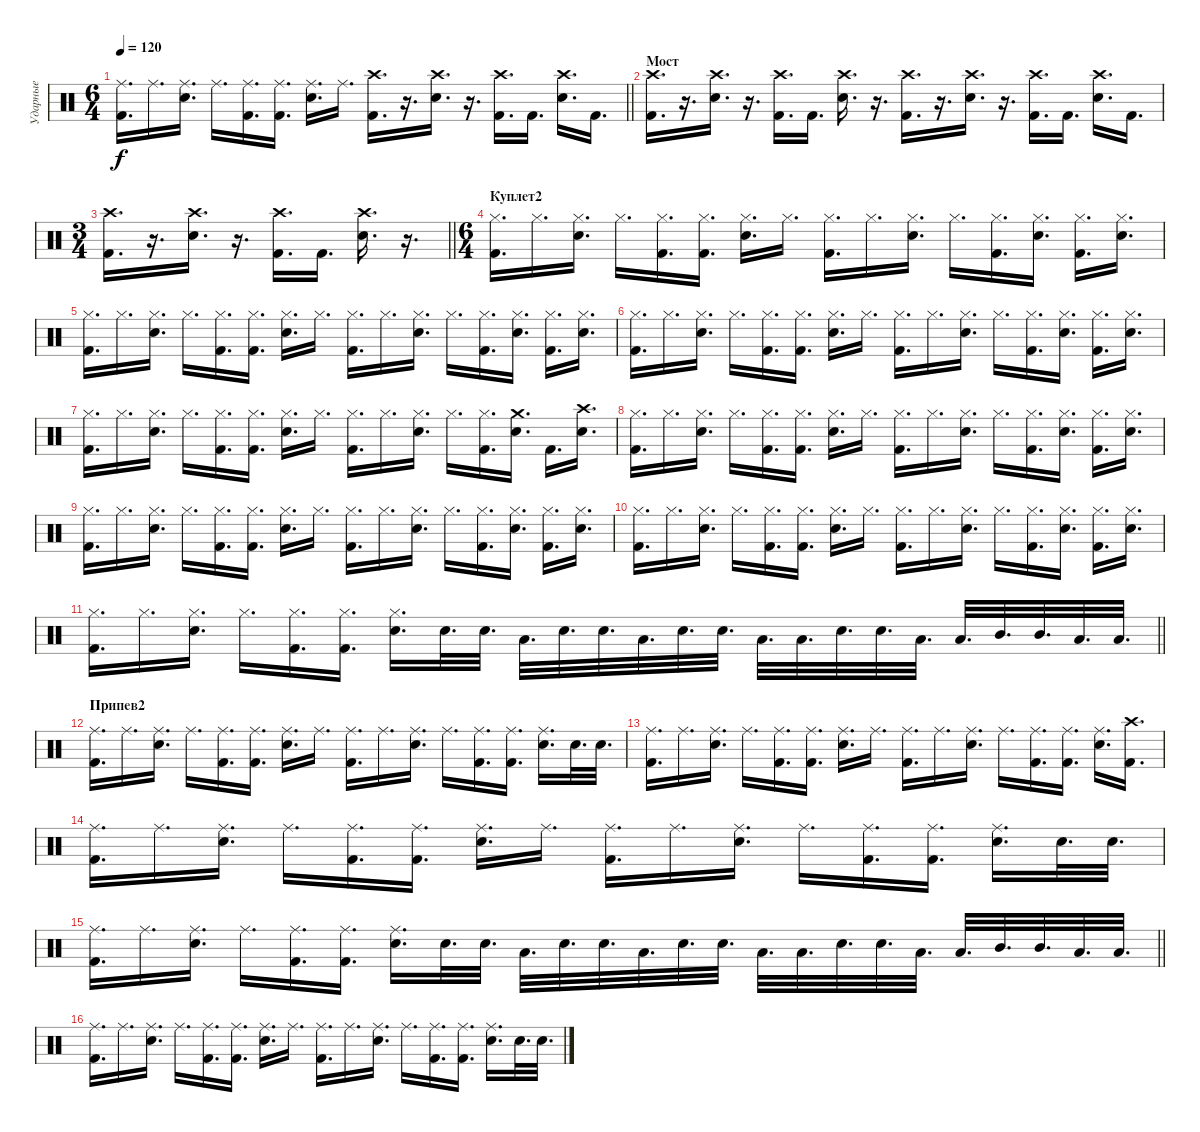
\track ("Ударные" "Ударные") {instrument percussion}
\staff {score}
\articulation defaults
\ts (6 4)
\tempo 120
\clef neutral
\barLineRight lightlight
\ks c
("Ride (middle)" "Kick (hit) 2").16{d dy f} "Ride (middle)".16{d} ("Ride (middle)" "Electric Snare (hit)").16{d} "Ride (middle)".16{d} ("Ride (middle)" "Kick (hit) 2").16{d} ("Ride (middle)" "Kick (hit) 2").16{d} ("Ride (middle)" "Electric Snare (hit)").16{d} "Ride (middle)".16{d} ("Crash high (hit)" "Kick (hit) 2").16{d} r.16{d} ("Crash high (hit)" "Electric Snare (hit)").16{d} r.16{d} ("Crash high (hit)" "Kick (hit) 2").16{d} "Kick (hit) 2".16{d} ("Crash high (hit)" "Electric Snare (hit)").16{d} "Kick (hit) 2".16{d} |
\section ("" "Мост")
("Crash high (hit)" "Kick (hit) 2").16{d} r.16{d} ("Crash high (hit)" "Electric Snare (hit)").16{d} r.16{d} ("Crash high (hit)" "Kick (hit) 2").16{d} "Kick (hit) 2".16{d} ("Crash high (hit)" "Electric Snare (hit)").16{d} r.16{d} ("Crash high (hit)" "Kick (hit) 2").16{d} r.16{d} ("Crash high (hit)" "Electric Snare (hit)").16{d} r.16{d} ("Crash high (hit)" "Kick (hit) 2").16{d} "Kick (hit) 2".16{d} ("Crash high (hit)" "Electric Snare (hit)").16{d} "Kick (hit) 2".16{d} |
\ts (3 4)
\barLineRight lightlight
("Crash high (hit)" "Kick (hit) 2").16{d} r.16{d} ("Crash high (hit)" "Electric Snare (hit)").16{d} r.16{d} ("Crash high (hit)" "Kick (hit) 2").16{d} "Kick (hit) 2".16{d} ("Crash high (hit)" "Electric Snare (hit)").16{d} r.16{d} |
\ts (6 4)
\section ("" "Куплет2")
("Hi-Hat (closed)" "Kick (hit) 2").16{d} "Hi-Hat (closed)".16{d} ("Hi-Hat (closed)" "Electric Snare (hit)").16{d} "Hi-Hat (closed)".16{d} ("Hi-Hat (closed)" "Kick (hit) 2").16{d} ("Hi-Hat (closed)" "Kick (hit) 2").16{d} ("Hi-Hat (closed)" "Electric Snare (hit)").16{d} "Hi-Hat (closed)".16{d} ("Hi-Hat (closed)" "Kick (hit) 2").16{d} "Hi-Hat (closed)".16{d} ("Hi-Hat (closed)" "Electric Snare (hit)").16{d} "Hi-Hat (closed)".16{d} ("Hi-Hat (closed)" "Kick (hit) 2").16{d} ("Hi-Hat (closed)" "Electric Snare (hit)").16{d} ("Hi-Hat (closed)" "Kick (hit) 2").16{d} ("Hi-Hat (closed)" "Electric Snare (hit)").16{d} |
("Hi-Hat (closed)" "Kick (hit) 2").16{d} "Hi-Hat (closed)".16{d} ("Hi-Hat (closed)" "Electric Snare (hit)").16{d} "Hi-Hat (closed)".16{d} ("Hi-Hat (closed)" "Kick (hit) 2").16{d} ("Hi-Hat (closed)" "Kick (hit) 2").16{d} ("Hi-Hat (closed)" "Electric Snare (hit)").16{d} "Hi-Hat (closed)".16{d} ("Hi-Hat (closed)" "Kick (hit) 2").16{d} "Hi-Hat (closed)".16{d} ("Hi-Hat (closed)" "Electric Snare (hit)").16{d} "Hi-Hat (closed)".16{d} ("Hi-Hat (closed)" "Kick (hit) 2").16{d} ("Hi-Hat (closed)" "Electric Snare (hit)").16{d} ("Hi-Hat (closed)" "Kick (hit) 2").16{d} ("Hi-Hat (closed)" "Electric Snare (hit)").16{d} |
("Hi-Hat (closed)" "Kick (hit) 2").16{d} "Hi-Hat (closed)".16{d} ("Hi-Hat (closed)" "Electric Snare (hit)").16{d} "Hi-Hat (closed)".16{d} ("Hi-Hat (closed)" "Kick (hit) 2").16{d} ("Hi-Hat (closed)" "Kick (hit) 2").16{d} ("Hi-Hat (closed)" "Electric Snare (hit)").16{d} "Hi-Hat (closed)".16{d} ("Hi-Hat (closed)" "Kick (hit) 2").16{d} "Hi-Hat (closed)".16{d} ("Hi-Hat (closed)" "Electric Snare (hit)").16{d} "Hi-Hat (closed)".16{d} ("Hi-Hat (closed)" "Kick (hit) 2").16{d} ("Hi-Hat (closed)" "Electric Snare (hit)").16{d} ("Hi-Hat (closed)" "Kick (hit) 2").16{d} ("Hi-Hat (closed)" "Electric Snare (hit)").16{d} |
("Hi-Hat (closed)" "Kick (hit) 2").16{d} "Hi-Hat (closed)".16{d} ("Hi-Hat (closed)" "Electric Snare (hit)").16{d} "Hi-Hat (closed)".16{d} ("Hi-Hat (closed)" "Kick (hit) 2").16{d} ("Hi-Hat (closed)" "Kick (hit) 2").16{d} ("Hi-Hat (closed)" "Electric Snare (hit)").16{d} "Hi-Hat (closed)".16{d} ("Hi-Hat (closed)" "Kick (hit) 2").16{d} "Hi-Hat (closed)".16{d} ("Hi-Hat (closed)" "Electric Snare (hit)").16{d} "Hi-Hat (closed)".16{d} ("Hi-Hat (closed)" "Kick (hit) 2").16{d} ("Crash medium (hit)" "Electric Snare (hit)").16{d} "Kick (hit) 2".16{d} ("Crash high (hit)" "Electric Snare (hit)").16{d} |
("Hi-Hat (closed)" "Kick (hit) 2").16{d} "Hi-Hat (closed)".16{d} ("Hi-Hat (closed)" "Electric Snare (hit)").16{d} "Hi-Hat (closed)".16{d} ("Hi-Hat (closed)" "Kick (hit) 2").16{d} ("Hi-Hat (closed)" "Kick (hit) 2").16{d} ("Hi-Hat (closed)" "Electric Snare (hit)").16{d} "Hi-Hat (closed)".16{d} ("Hi-Hat (closed)" "Kick (hit) 2").16{d} "Hi-Hat (closed)".16{d} ("Hi-Hat (closed)" "Electric Snare (hit)").16{d} "Hi-Hat (closed)".16{d} ("Hi-Hat (closed)" "Kick (hit) 2").16{d} ("Hi-Hat (closed)" "Electric Snare (hit)").16{d} ("Hi-Hat (closed)" "Kick (hit) 2").16{d} ("Hi-Hat (closed)" "Electric Snare (hit)").16{d} |
("Hi-Hat (closed)" "Kick (hit) 2").16{d} "Hi-Hat (closed)".16{d} ("Hi-Hat (closed)" "Electric Snare (hit)").16{d} "Hi-Hat (closed)".16{d} ("Hi-Hat (closed)" "Kick (hit) 2").16{d} ("Hi-Hat (closed)" "Kick (hit) 2").16{d} ("Hi-Hat (closed)" "Electric Snare (hit)").16{d} "Hi-Hat (closed)".16{d} ("Hi-Hat (closed)" "Kick (hit) 2").16{d} "Hi-Hat (closed)".16{d} ("Hi-Hat (closed)" "Electric Snare (hit)").16{d} "Hi-Hat (closed)".16{d} ("Hi-Hat (closed)" "Kick (hit) 2").16{d} ("Hi-Hat (closed)" "Electric Snare (hit)").16{d} ("Hi-Hat (closed)" "Kick (hit) 2").16{d} ("Hi-Hat (closed)" "Electric Snare (hit)").16{d} |
("Hi-Hat (closed)" "Kick (hit) 2").16{d} "Hi-Hat (closed)".16{d} ("Hi-Hat (closed)" "Electric Snare (hit)").16{d} "Hi-Hat (closed)".16{d} ("Hi-Hat (closed)" "Kick (hit) 2").16{d} ("Hi-Hat (closed)" "Kick (hit) 2").16{d} ("Hi-Hat (closed)" "Electric Snare (hit)").16{d} "Hi-Hat (closed)".16{d} ("Hi-Hat (closed)" "Kick (hit) 2").16{d} "Hi-Hat (closed)".16{d} ("Hi-Hat (closed)" "Electric Snare (hit)").16{d} "Hi-Hat (closed)".16{d} ("Hi-Hat (closed)" "Kick (hit) 2").16{d} ("Hi-Hat (closed)" "Electric Snare (hit)").16{d} ("Hi-Hat (closed)" "Kick (hit) 2").16{d} ("Hi-Hat (closed)" "Electric Snare (hit)").16{d} |
\barLineRight lightlight
("Hi-Hat (closed)" "Kick (hit) 2").16{d} "Hi-Hat (closed)".16{d} ("Hi-Hat (closed)" "Electric Snare (hit)").16{d} "Hi-Hat (closed)".16{d} ("Hi-Hat (closed)" "Kick (hit) 2").16{d} ("Hi-Hat (closed)" "Kick (hit) 2").16{d} ("Hi-Hat (closed)" "Electric Snare (hit)").16{d} "Electric Snare (hit)".32{d} "Electric Snare (hit)".32{d} "Low Tom (hit)".32{d} "Electric Snare (hit)".32{d} "Electric Snare (hit)".32{d} "Low Tom (hit)".32{d} "Electric Snare (hit)".32{d} "Electric Snare (hit)".32{d} "Low Tom (hit)".32{d} "Low Tom (hit)".32{d} "Electric Snare (hit)".32{d} "Electric Snare (hit)".32{d} "Low Tom (hit)".32{d} "Low Tom (hit)".32{d} "Mid Tom (hit)".32{d} "Mid Tom (hit)".32{d} "Low Floor Tom (hit)".32{d} "Low Floor Tom (hit)".32{d} |
\section ("" "Припев2")
("Ride (middle)" "Kick (hit) 2").16{d} "Ride (middle)".16{d} ("Ride (middle)" "Electric Snare (hit)").16{d} "Ride (middle)".16{d} ("Ride (middle)" "Kick (hit) 2").16{d} ("Ride (middle)" "Kick (hit) 2").16{d} ("Ride (middle)" "Electric Snare (hit)").16{d} "Ride (middle)".16{d} ("Ride (middle)" "Kick (hit) 2").16{d} "Ride (middle)".16{d} ("Ride (middle)" "Electric Snare (hit)").16{d} "Ride (middle)".16{d} ("Ride (middle)" "Kick (hit) 2").16{d} ("Ride (middle)" "Kick (hit) 2").16{d} ("Ride (middle)" "Electric Snare (hit)").16{d} "Electric Snare (hit)".32{d} "Electric Snare (hit)".32{d} |
("Ride (middle)" "Kick (hit) 2").16{d} "Ride (middle)".16{d} ("Ride (middle)" "Electric Snare (hit)").16{d} "Ride (middle)".16{d} ("Ride (middle)" "Kick (hit) 2").16{d} ("Ride (middle)" "Kick (hit) 2").16{d} ("Ride (middle)" "Electric Snare (hit)").16{d} "Ride (middle)".16{d} ("Ride (middle)" "Kick (hit) 2").16{d} "Ride (middle)".16{d} ("Ride (middle)" "Electric Snare (hit)").16{d} "Ride (middle)".16{d} ("Ride (middle)" "Kick (hit) 2").16{d} ("Ride (middle)" "Kick (hit) 2").16{d} ("Ride (middle)" "Electric Snare (hit)").16{d} ("Crash high (hit)" "Kick (hit) 2").16{d} |
("Ride (middle)" "Kick (hit) 2").16{d} "Ride (middle)".16{d} ("Ride (middle)" "Electric Snare (hit)").16{d} "Ride (middle)".16{d} ("Ride (middle)" "Kick (hit) 2").16{d} ("Ride (middle)" "Kick (hit) 2").16{d} ("Ride (middle)" "Electric Snare (hit)").16{d} "Ride (middle)".16{d} ("Ride (middle)" "Kick (hit) 2").16{d} "Ride (middle)".16{d} ("Ride (middle)" "Electric Snare (hit)").16{d} "Ride (middle)".16{d} ("Ride (middle)" "Kick (hit) 2").16{d} ("Ride (middle)" "Kick (hit) 2").16{d} ("Ride (middle)" "Electric Snare (hit)").16{d} "Electric Snare (hit)".32{d} "Electric Snare (hit)".32{d} |
\barLineRight lightlight
("Ride (middle)" "Kick (hit) 2").16{d} "Ride (middle)".16{d} ("Ride (middle)" "Electric Snare (hit)").16{d} "Ride (middle)".16{d} ("Ride (middle)" "Kick (hit) 2").16{d} ("Ride (middle)" "Kick (hit) 2").16{d} ("Ride (middle)" "Electric Snare (hit)").16{d} "Electric Snare (hit)".32{d} "Electric Snare (hit)".32{d} "Low Tom (hit)".32{d} "Electric Snare (hit)".32{d} "Electric Snare (hit)".32{d} "Low Tom (hit)".32{d} "Electric Snare (hit)".32{d} "Electric Snare (hit)".32{d} "Low Tom (hit)".32{d} "Low Tom (hit)".32{d} "Electric Snare (hit)".32{d} "Electric Snare (hit)".32{d} "Low Tom (hit)".32{d} "Low Tom (hit)".32{d} "Mid Tom (hit)".32{d} "Mid Tom (hit)".32{d} "Low Floor Tom (hit)".32{d} "Low Floor Tom (hit)".32{d} |
("Ride (middle)" "Kick (hit) 2").16{d} "Ride (middle)".16{d} ("Ride (middle)" "Electric Snare (hit)").16{d} "Ride (middle)".16{d} ("Ride (middle)" "Kick (hit) 2").16{d} ("Ride (middle)" "Kick (hit) 2").16{d} ("Ride (middle)" "Electric Snare (hit)").16{d} "Ride (middle)".16{d} ("Ride (middle)" "Kick (hit) 2").16{d} "Ride (middle)".16{d} ("Ride (middle)" "Electric Snare (hit)").16{d} "Ride (middle)".16{d} ("Ride (middle)" "Kick (hit) 2").16{d} ("Ride (middle)" "Kick (hit) 2").16{d} ("Ride (middle)" "Electric Snare (hit)").16{d} "Electric Snare (hit)".32{d} "Electric Snare (hit)".32{d}
